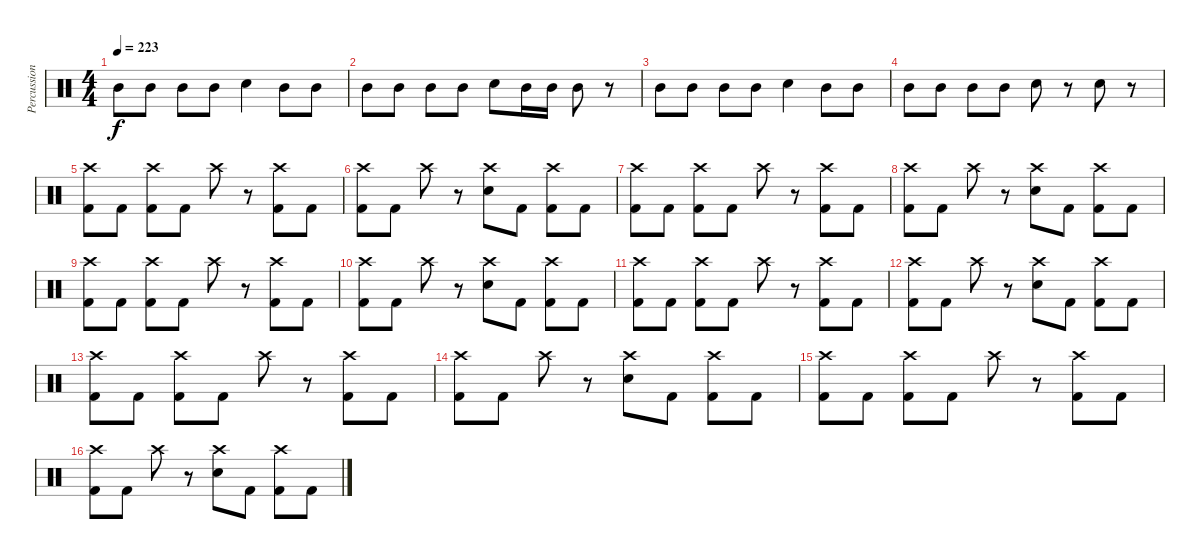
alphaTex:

\track ("Percussion" "Percussion") {instrument percussion}
\staff {score}
\articulation defaults
\ts (4 4)
\tempo 223
\clef neutral
\ks c "Mid Tom (hit)".8{dy f} "Mid Tom (hit)".8 "Mid Tom (hit)".8 "Mid Tom (hit)".8 "Electric Snare (hit)".4 "Mid Tom (hit)".8 "Mid Tom (hit)".8
|
"Mid Tom (hit)".8 "Mid Tom (hit)".8 "Mid Tom (hit)".8 "Mid Tom (hit)".8 "Electric Snare (hit)".8 "Mid Tom (hit)".16 "Mid Tom (hit)".16 "Mid Tom (hit)".8 r.8 |
"Mid Tom (hit)".8 "Mid Tom (hit)".8 "Mid Tom (hit)".8 "Mid Tom (hit)".8 "Electric Snare (hit)".4 "Mid Tom (hit)".8 "Mid Tom (hit)".8 |
"Mid Tom (hit)".8 "Mid Tom (hit)".8 "Mid Tom (hit)".8 "Mid Tom (hit)".8 "Electric Snare (hit)".8 r.8 "Electric Snare (hit)".8 r.8 |
("Crash high (hit)" "Kick (hit) 2").8 "Kick (hit) 2".8 ("Crash high (hit)" "Kick (hit) 2").8 "Kick (hit) 2".8 "Crash high (hit)".8 r.8 ("Crash high (hit)" "Kick (hit) 2").8 "Kick (hit) 2".8 |
("Crash high (hit)" "Kick (hit) 2").8 "Kick (hit) 2".8 "Crash high (hit)".8 r.8 ("Crash high (hit)" "Electric Snare (hit)").8 "Kick (hit) 2".8 ("Crash high (hit)" "Kick (hit) 2").8 "Kick (hit) 2".8 |
("Crash high (hit)" "Kick (hit) 2").8 "Kick (hit) 2".8 ("Crash high (hit)" "Kick (hit) 2").8 "Kick (hit) 2".8 "Crash high (hit)".8 r.8 ("Crash high (hit)" "Kick (hit) 2").8 "Kick (hit) 2".8 |
("Crash high (hit)" "Kick (hit) 2").8 "Kick (hit) 2".8 "Crash high (hit)".8 r.8 ("Crash high (hit)" "Electric Snare (hit)").8 "Kick (hit) 2".8 ("Crash high (hit)" "Kick (hit) 2").8 "Kick (hit) 2".8 |
("Crash high (hit)" "Kick (hit) 2").8 "Kick (hit) 2".8 ("Crash high (hit)" "Kick (hit) 2").8 "Kick (hit) 2".8 "Crash high (hit)".8 r.8 ("Crash high (hit)" "Kick (hit) 2").8 "Kick (hit) 2".8 |
("Crash high (hit)" "Kick (hit) 2").8 "Kick (hit) 2".8 "Crash high (hit)".8 r.8 ("Crash high (hit)" "Electric Snare (hit)").8 "Kick (hit) 2".8 ("Crash high (hit)" "Kick (hit) 2").8 "Kick (hit) 2".8 |
("Crash high (hit)" "Kick (hit) 2").8 "Kick (hit) 2".8 ("Crash high (hit)" "Kick (hit) 2").8 "Kick (hit) 2".8 "Crash high (hit)".8 r.8 ("Crash high (hit)" "Kick (hit) 2").8 "Kick (hit) 2".8 |
("Crash high (hit)" "Kick (hit) 2").8 "Kick (hit) 2".8 "Crash high (hit)".8 r.8 ("Crash high (hit)" "Electric Snare (hit)").8 "Kick (hit) 2".8 ("Crash high (hit)" "Kick (hit) 2").8 "Kick (hit) 2".8 |
("Crash high (hit)" "Kick (hit) 2").8 "Kick (hit) 2".8 ("Crash high (hit)" "Kick (hit) 2").8 "Kick (hit) 2".8 "Crash high (hit)".8 r.8 ("Crash high (hit)" "Kick (hit) 2").8 "Kick (hit) 2".8 |
("Crash high (hit)" "Kick (hit) 2").8 "Kick (hit) 2".8 "Crash high (hit)".8 r.8 ("Crash high (hit)" "Electric Snare (hit)").8 "Kick (hit) 2".8 ("Crash high (hit)" "Kick (hit) 2").8 "Kick (hit) 2".8 |
("Crash high (hit)" "Kick (hit) 2").8 "Kick (hit) 2".8 ("Crash high (hit)" "Kick (hit) 2").8 "Kick (hit) 2".8 "Crash high (hit)".8 r.8 ("Crash high (hit)" "Kick (hit) 2").8 "Kick (hit) 2".8 |
("Crash high (hit)" "Kick (hit) 2").8 "Kick (hit) 2".8 "Crash high (hit)".8 r.8 ("Crash high (hit)" "Electric Snare (hit)").8 "Kick (hit) 2".8 ("Crash high (hit)" "Kick (hit) 2").8 "Kick (hit) 2".8
